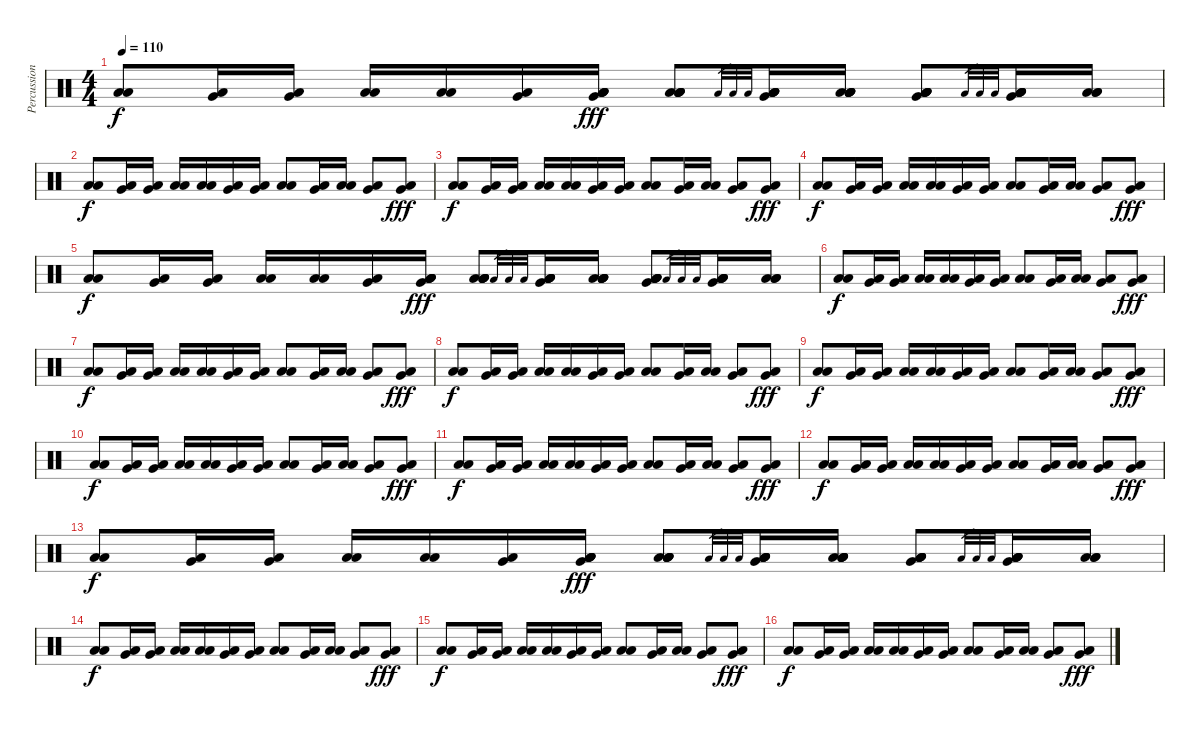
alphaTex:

\track ("Percussion" "Percussion") {instrument percussion}
\staff {score}
\articulation defaults
\ts (4 4)
\tempo 110
\clef neutral
\ks c
("Low Floor Tom (hit)" "Low Floor Tom (hit)").8{dy f} ("Low Tom (hit)" "Very Low Tom (hit)").16 ("Low Tom (hit)" "Very Low Tom (hit)").16 ("Low Floor Tom (hit)" "Low Floor Tom (hit)").16 ("Low Floor Tom (hit)" "Low Floor Tom (hit)").16 ("Low Tom (hit)" "Very Low Tom (hit)").16 ("Low Tom (hit)" "Very Low Tom (hit)" "Low Floor Tom (hit)" "Low Floor Tom (hit)" "Low Floor Tom (hit)").16{dy fff} ("Low Floor Tom (hit)" "Low Floor Tom (hit)" "Low Floor Tom (hit)" "Low Floor Tom (hit)" "Low Floor Tom (hit)").8 "Low Floor Tom (hit)".32{gr} "Low Floor Tom (hit)".32{gr} "Low Floor Tom (hit)".32{gr} ("Low Tom (hit)" "Very Low Tom (hit)" "Low Floor Tom (hit)" "Low Floor Tom (hit)" "Low Floor Tom (hit)").16 ("Low Tom (hit)" "Low Tom (hit)" "Low Floor Tom (hit)" "Low Floor Tom (hit)" "Low Floor Tom (hit)").16 ("Low Floor Tom (hit)" "Very Low Tom (hit)" "Low Floor Tom (hit)" "Low Floor Tom (hit)" "Low Floor Tom (hit)").8 "Low Floor Tom (hit)".32{gr} "Low Floor Tom (hit)".32{gr} "Low Floor Tom (hit)".32{gr} ("Low Floor Tom (hit)" "Very Low Tom (hit)" "Low Floor Tom (hit)" "Low Floor Tom (hit)" "Low Floor Tom (hit)").16 ("Low Floor Tom (hit)" "Low Floor Tom (hit)" "Low Floor Tom (hit)").16 |
("Low Floor Tom (hit)" "Low Floor Tom (hit)").8{dy f} ("Low Tom (hit)" "Very Low Tom (hit)").16 ("Low Tom (hit)" "Very Low Tom (hit)").16 ("Low Floor Tom (hit)" "Low Floor Tom (hit)").16 ("Low Floor Tom (hit)" "Low Floor Tom (hit)").16 ("Low Tom (hit)" "Very Low Tom (hit)").16 ("Low Tom (hit)" "Very Low Tom (hit)").16 ("Low Floor Tom (hit)" "Low Floor Tom (hit)").8 ("Low Tom (hit)" "Very Low Tom (hit)").16 ("Low Tom (hit)" "Low Tom (hit)").16 ("Low Floor Tom (hit)" "Very Low Tom (hit)").8 ("Low Floor Tom (hit)" "Very Low Tom (hit)").8{dy fff} |
("Low Floor Tom (hit)" "Low Floor Tom (hit)").8{dy f} ("Low Tom (hit)" "Very Low Tom (hit)").16 ("Low Tom (hit)" "Very Low Tom (hit)").16 ("Low Floor Tom (hit)" "Low Floor Tom (hit)").16 ("Low Floor Tom (hit)" "Low Floor Tom (hit)").16 ("Low Tom (hit)" "Very Low Tom (hit)").16 ("Low Tom (hit)" "Very Low Tom (hit)").16 ("Low Floor Tom (hit)" "Low Floor Tom (hit)").8 ("Low Tom (hit)" "Very Low Tom (hit)").16 ("Low Tom (hit)" "Low Tom (hit)").16 ("Low Floor Tom (hit)" "Very Low Tom (hit)").8 ("Low Floor Tom (hit)" "Very Low Tom (hit)").8{dy fff} |
("Low Floor Tom (hit)" "Low Floor Tom (hit)").8{dy f} ("Low Tom (hit)" "Very Low Tom (hit)").16 ("Low Tom (hit)" "Very Low Tom (hit)").16 ("Low Floor Tom (hit)" "Low Floor Tom (hit)").16 ("Low Floor Tom (hit)" "Low Floor Tom (hit)").16 ("Low Tom (hit)" "Very Low Tom (hit)").16 ("Low Tom (hit)" "Very Low Tom (hit)").16 ("Low Floor Tom (hit)" "Low Floor Tom (hit)").8 ("Low Tom (hit)" "Very Low Tom (hit)").16 ("Low Tom (hit)" "Low Tom (hit)").16 ("Low Floor Tom (hit)" "Very Low Tom (hit)").8 ("Low Floor Tom (hit)" "Very Low Tom (hit)").8{dy fff} |
("Low Floor Tom (hit)" "Low Floor Tom (hit)").8{dy f} ("Low Tom (hit)" "Very Low Tom (hit)").16 ("Low Tom (hit)" "Very Low Tom (hit)").16 ("Low Floor Tom (hit)" "Low Floor Tom (hit)").16 ("Low Floor Tom (hit)" "Low Floor Tom (hit)").16 ("Low Tom (hit)" "Very Low Tom (hit)").16 ("Low Tom (hit)" "Very Low Tom (hit)" "Low Floor Tom (hit)" "Low Floor Tom (hit)" "Low Floor Tom (hit)").16{dy fff} ("Low Floor Tom (hit)" "Low Floor Tom (hit)" "Low Floor Tom (hit)" "Low Floor Tom (hit)" "Low Floor Tom (hit)").8 "Low Floor Tom (hit)".32{gr} "Low Floor Tom (hit)".32{gr} "Low Floor Tom (hit)".32{gr} ("Low Tom (hit)" "Very Low Tom (hit)" "Low Floor Tom (hit)" "Low Floor Tom (hit)" "Low Floor Tom (hit)").16 ("Low Tom (hit)" "Low Tom (hit)" "Low Floor Tom (hit)" "Low Floor Tom (hit)" "Low Floor Tom (hit)").16 ("Low Floor Tom (hit)" "Very Low Tom (hit)" "Low Floor Tom (hit)" "Low Floor Tom (hit)" "Low Floor Tom (hit)").8 "Low Floor Tom (hit)".32{gr} "Low Floor Tom (hit)".32{gr} "Low Floor Tom (hit)".32{gr} ("Low Floor Tom (hit)" "Very Low Tom (hit)" "Low Floor Tom (hit)" "Low Floor Tom (hit)" "Low Floor Tom (hit)").16 ("Low Floor Tom (hit)" "Low Floor Tom (hit)" "Low Floor Tom (hit)").16 |
("Low Floor Tom (hit)" "Low Floor Tom (hit)").8{dy f} ("Low Tom (hit)" "Very Low Tom (hit)").16 ("Low Tom (hit)" "Very Low Tom (hit)").16 ("Low Floor Tom (hit)" "Low Floor Tom (hit)").16 ("Low Floor Tom (hit)" "Low Floor Tom (hit)").16 ("Low Tom (hit)" "Very Low Tom (hit)").16 ("Low Tom (hit)" "Very Low Tom (hit)").16 ("Low Floor Tom (hit)" "Low Floor Tom (hit)").8 ("Low Tom (hit)" "Very Low Tom (hit)").16 ("Low Tom (hit)" "Low Tom (hit)").16 ("Low Floor Tom (hit)" "Very Low Tom (hit)").8 ("Low Floor Tom (hit)" "Very Low Tom (hit)").8{dy fff} |
("Low Floor Tom (hit)" "Low Floor Tom (hit)").8{dy f} ("Low Tom (hit)" "Very Low Tom (hit)").16 ("Low Tom (hit)" "Very Low Tom (hit)").16 ("Low Floor Tom (hit)" "Low Floor Tom (hit)").16 ("Low Floor Tom (hit)" "Low Floor Tom (hit)").16 ("Low Tom (hit)" "Very Low Tom (hit)").16 ("Low Tom (hit)" "Very Low Tom (hit)").16 ("Low Floor Tom (hit)" "Low Floor Tom (hit)").8 ("Low Tom (hit)" "Very Low Tom (hit)").16 ("Low Tom (hit)" "Low Tom (hit)").16 ("Low Floor Tom (hit)" "Very Low Tom (hit)").8 ("Low Floor Tom (hit)" "Very Low Tom (hit)").8{dy fff} |
("Low Floor Tom (hit)" "Low Floor Tom (hit)").8{dy f} ("Low Tom (hit)" "Very Low Tom (hit)").16 ("Low Tom (hit)" "Very Low Tom (hit)").16 ("Low Floor Tom (hit)" "Low Floor Tom (hit)").16 ("Low Floor Tom (hit)" "Low Floor Tom (hit)").16 ("Low Tom (hit)" "Very Low Tom (hit)").16 ("Low Tom (hit)" "Very Low Tom (hit)").16 ("Low Floor Tom (hit)" "Low Floor Tom (hit)").8 ("Low Tom (hit)" "Very Low Tom (hit)").16 ("Low Tom (hit)" "Low Tom (hit)").16 ("Low Floor Tom (hit)" "Very Low Tom (hit)").8 ("Low Floor Tom (hit)" "Very Low Tom (hit)").8{dy fff} |
("Low Floor Tom (hit)" "Low Floor Tom (hit)").8{dy f} ("Low Tom (hit)" "Very Low Tom (hit)").16 ("Low Tom (hit)" "Very Low Tom (hit)").16 ("Low Floor Tom (hit)" "Low Floor Tom (hit)").16 ("Low Floor Tom (hit)" "Low Floor Tom (hit)").16 ("Low Tom (hit)" "Very Low Tom (hit)").16 ("Low Tom (hit)" "Very Low Tom (hit)").16 ("Low Floor Tom (hit)" "Low Floor Tom (hit)").8 ("Low Tom (hit)" "Very Low Tom (hit)").16 ("Low Tom (hit)" "Low Tom (hit)").16 ("Low Floor Tom (hit)" "Very Low Tom (hit)").8 ("Low Floor Tom (hit)" "Very Low Tom (hit)").8{dy fff} |
("Low Floor Tom (hit)" "Low Floor Tom (hit)").8{dy f} ("Low Tom (hit)" "Very Low Tom (hit)").16 ("Low Tom (hit)" "Very Low Tom (hit)").16 ("Low Floor Tom (hit)" "Low Floor Tom (hit)").16 ("Low Floor Tom (hit)" "Low Floor Tom (hit)").16 ("Low Tom (hit)" "Very Low Tom (hit)").16 ("Low Tom (hit)" "Very Low Tom (hit)").16 ("Low Floor Tom (hit)" "Low Floor Tom (hit)").8 ("Low Tom (hit)" "Very Low Tom (hit)").16 ("Low Tom (hit)" "Low Tom (hit)").16 ("Low Floor Tom (hit)" "Very Low Tom (hit)").8 ("Low Floor Tom (hit)" "Very Low Tom (hit)").8{dy fff} |
("Low Floor Tom (hit)" "Low Floor Tom (hit)").8{dy f} ("Low Tom (hit)" "Very Low Tom (hit)").16 ("Low Tom (hit)" "Very Low Tom (hit)").16 ("Low Floor Tom (hit)" "Low Floor Tom (hit)").16 ("Low Floor Tom (hit)" "Low Floor Tom (hit)").16 ("Low Tom (hit)" "Very Low Tom (hit)").16 ("Low Tom (hit)" "Very Low Tom (hit)").16 ("Low Floor Tom (hit)" "Low Floor Tom (hit)").8 ("Low Tom (hit)" "Very Low Tom (hit)").16 ("Low Tom (hit)" "Low Tom (hit)").16 ("Low Floor Tom (hit)" "Very Low Tom (hit)").8 ("Low Floor Tom (hit)" "Very Low Tom (hit)").8{dy fff} |
("Low Floor Tom (hit)" "Low Floor Tom (hit)").8{dy f} ("Low Tom (hit)" "Very Low Tom (hit)").16 ("Low Tom (hit)" "Very Low Tom (hit)").16 ("Low Floor Tom (hit)" "Low Floor Tom (hit)").16 ("Low Floor Tom (hit)" "Low Floor Tom (hit)").16 ("Low Tom (hit)" "Very Low Tom (hit)").16 ("Low Tom (hit)" "Very Low Tom (hit)").16 ("Low Floor Tom (hit)" "Low Floor Tom (hit)").8 ("Low Tom (hit)" "Very Low Tom (hit)").16 ("Low Tom (hit)" "Low Tom (hit)").16 ("Low Floor Tom (hit)" "Very Low Tom (hit)").8 ("Low Floor Tom (hit)" "Very Low Tom (hit)").8{dy fff} |
("Low Floor Tom (hit)" "Low Floor Tom (hit)").8{dy f} ("Low Tom (hit)" "Very Low Tom (hit)").16 ("Low Tom (hit)" "Very Low Tom (hit)").16 ("Low Floor Tom (hit)" "Low Floor Tom (hit)").16 ("Low Floor Tom (hit)" "Low Floor Tom (hit)").16 ("Low Tom (hit)" "Very Low Tom (hit)").16 ("Low Tom (hit)" "Very Low Tom (hit)" "Low Floor Tom (hit)" "Low Floor Tom (hit)" "Low Floor Tom (hit)").16{dy fff} ("Low Floor Tom (hit)" "Low Floor Tom (hit)" "Low Floor Tom (hit)" "Low Floor Tom (hit)" "Low Floor Tom (hit)").8 "Low Floor Tom (hit)".32{gr} "Low Floor Tom (hit)".32{gr} "Low Floor Tom (hit)".32{gr} ("Low Tom (hit)" "Very Low Tom (hit)" "Low Floor Tom (hit)" "Low Floor Tom (hit)" "Low Floor Tom (hit)").16 ("Low Tom (hit)" "Low Tom (hit)" "Low Floor Tom (hit)" "Low Floor Tom (hit)" "Low Floor Tom (hit)").16 ("Low Floor Tom (hit)" "Very Low Tom (hit)" "Low Floor Tom (hit)" "Low Floor Tom (hit)" "Low Floor Tom (hit)").8 "Low Floor Tom (hit)".32{gr} "Low Floor Tom (hit)".32{gr} "Low Floor Tom (hit)".32{gr} ("Low Floor Tom (hit)" "Very Low Tom (hit)" "Low Floor Tom (hit)" "Low Floor Tom (hit)" "Low Floor Tom (hit)").16 ("Low Floor Tom (hit)" "Low Floor Tom (hit)" "Low Floor Tom (hit)").16 |
("Low Floor Tom (hit)" "Low Floor Tom (hit)").8{dy f} ("Low Tom (hit)" "Very Low Tom (hit)").16 ("Low Tom (hit)" "Very Low Tom (hit)").16 ("Low Floor Tom (hit)" "Low Floor Tom (hit)").16 ("Low Floor Tom (hit)" "Low Floor Tom (hit)").16 ("Low Tom (hit)" "Very Low Tom (hit)").16 ("Low Tom (hit)" "Very Low Tom (hit)").16 ("Low Floor Tom (hit)" "Low Floor Tom (hit)").8 ("Low Tom (hit)" "Very Low Tom (hit)").16 ("Low Tom (hit)" "Low Tom (hit)").16 ("Low Floor Tom (hit)" "Very Low Tom (hit)").8 ("Low Floor Tom (hit)" "Very Low Tom (hit)").8{dy fff} |
("Low Floor Tom (hit)" "Low Floor Tom (hit)").8{dy f} ("Low Tom (hit)" "Very Low Tom (hit)").16 ("Low Tom (hit)" "Very Low Tom (hit)").16 ("Low Floor Tom (hit)" "Low Floor Tom (hit)").16 ("Low Floor Tom (hit)" "Low Floor Tom (hit)").16 ("Low Tom (hit)" "Very Low Tom (hit)").16 ("Low Tom (hit)" "Very Low Tom (hit)").16 ("Low Floor Tom (hit)" "Low Floor Tom (hit)").8 ("Low Tom (hit)" "Very Low Tom (hit)").16 ("Low Tom (hit)" "Low Tom (hit)").16 ("Low Floor Tom (hit)" "Very Low Tom (hit)").8 ("Low Floor Tom (hit)" "Very Low Tom (hit)").8{dy fff} |
("Low Floor Tom (hit)" "Low Floor Tom (hit)").8{dy f} ("Low Tom (hit)" "Very Low Tom (hit)").16 ("Low Tom (hit)" "Very Low Tom (hit)").16 ("Low Floor Tom (hit)" "Low Floor Tom (hit)").16 ("Low Floor Tom (hit)" "Low Floor Tom (hit)").16 ("Low Tom (hit)" "Very Low Tom (hit)").16 ("Low Tom (hit)" "Very Low Tom (hit)").16 ("Low Floor Tom (hit)" "Low Floor Tom (hit)").8 ("Low Tom (hit)" "Very Low Tom (hit)").16 ("Low Tom (hit)" "Low Tom (hit)").16 ("Low Floor Tom (hit)" "Very Low Tom (hit)").8 ("Low Floor Tom (hit)" "Very Low Tom (hit)").8{dy fff}
